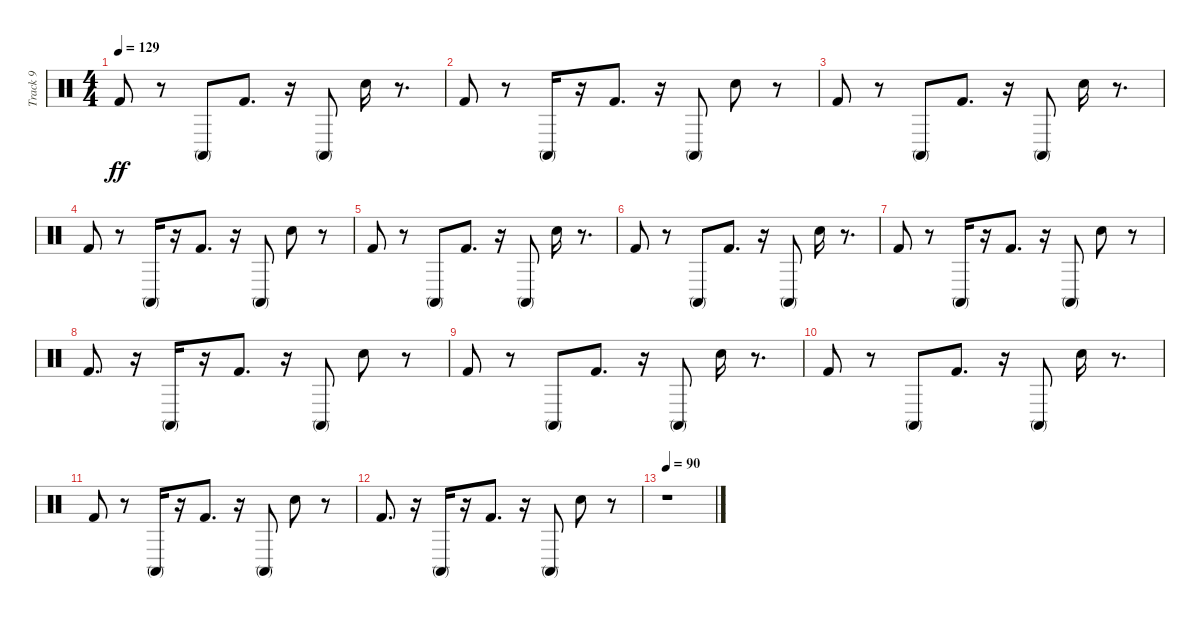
\track ("Track 9" "Track 9") {instrument percussion}
\staff {score}
\articulation defaults
\ts (4 4)
\tempo 129
\clef neutral
\ks c "Kick (hit) 2".8{dy ff}
r.8 "Conga high (mute)".8 "Kick (hit) 2".8{d} r.16 "Conga high (mute)".8 "Snare (hit) 2".16 r.8{d} |
"Kick (hit) 2".8 r.8 "Conga high (mute)".16 r.16 "Kick (hit) 2".8{d} r.16 "Conga high (mute)".8 "Snare (hit) 2".8 r.8 |
"Kick (hit) 2".8 r.8 "Conga high (mute)".8 "Kick (hit) 2".8{d} r.16 "Conga high (mute)".8 "Snare (hit) 2".16 r.8{d} |
"Kick (hit) 2".8 r.8 "Conga high (mute)".16 r.16 "Kick (hit) 2".8{d} r.16 "Conga high (mute)".8 "Snare (hit) 2".8 r.8 |
"Kick (hit) 2".8 r.8 "Conga high (mute)".8 "Kick (hit) 2".8{d} r.16 "Conga high (mute)".8 "Snare (hit) 2".16 r.8{d} |
"Kick (hit) 2".8 r.8 "Conga high (mute)".8 "Kick (hit) 2".8{d} r.16 "Conga high (mute)".8 "Snare (hit) 2".16 r.8{d} |
"Kick (hit) 2".8 r.8 "Conga high (mute)".16 r.16 "Kick (hit) 2".8{d} r.16 "Conga high (mute)".8 "Snare (hit) 2".8 r.8 |
"Kick (hit) 2".8{d} r.16 "Conga high (mute)".16 r.16 "Kick (hit) 2".8{d} r.16 "Conga high (mute)".8 "Snare (hit) 2".8 r.8 |
"Kick (hit) 2".8 r.8 "Conga high (mute)".8 "Kick (hit) 2".8{d} r.16 "Conga high (mute)".8 "Snare (hit) 2".16 r.8{d} |
"Kick (hit) 2".8 r.8 "Conga high (mute)".8 "Kick (hit) 2".8{d} r.16 "Conga high (mute)".8 "Snare (hit) 2".16 r.8{d} |
"Kick (hit) 2".8 r.8 "Conga high (mute)".16 r.16 "Kick (hit) 2".8{d} r.16 "Conga high (mute)".8 "Snare (hit) 2".8 r.8 |
"Kick (hit) 2".8{d} r.16 "Conga high (mute)".16 r.16 "Kick (hit) 2".8{d} r.16 "Conga high (mute)".8 "Snare (hit) 2".8 r.8 |
\tempo 90
r.1
